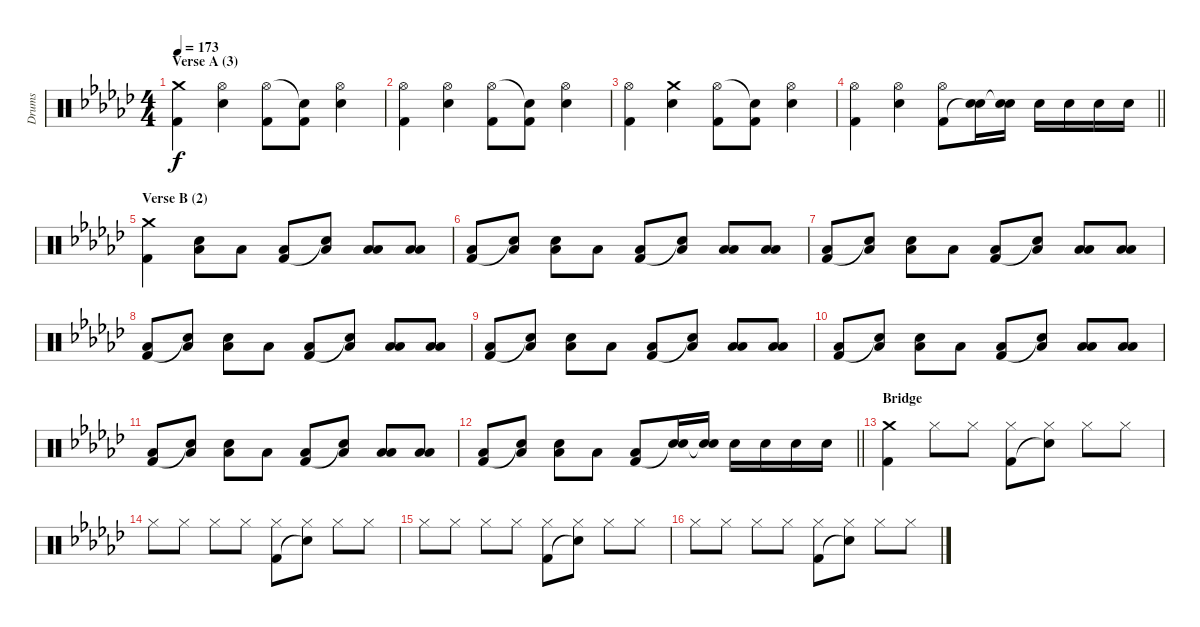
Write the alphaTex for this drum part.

\track ("Drums" "Drums") {instrument percussion}
\staff {score}
\articulation defaults
\ts (4 4)
\section ("" "Verse A (3)")
\tempo 173
\clef neutral
\ks ebminor
("Crash medium (hit)" "Kick (hit) 2").4{dy f} ("Hi-Hat (open)" "Electric Snare (hit)").4 ("Hi-Hat (open)" "Kick (hit) 2").8 ("Snare (hit)"{t} "Kick (hit) 2").8 ("Hi-Hat (open)" "Electric Snare (hit)").4 |
("Hi-Hat (open)" "Kick (hit) 2").4 ("Hi-Hat (open)" "Electric Snare (hit)").4 ("Hi-Hat (open)" "Kick (hit) 2").8 ("Snare (hit)"{t} "Kick (hit) 2").8 ("Hi-Hat (open)" "Electric Snare (hit)").4 |
("Hi-Hat (open)" "Kick (hit) 2").4 ("Crash medium (hit)" "Electric Snare (hit)").4 ("Hi-Hat (open)" "Kick (hit) 2").8 ("Snare (hit)"{t} "Kick (hit) 2").8 ("Hi-Hat (open)" "Electric Snare (hit)").4 |
\barLineRight lightlight
("Hi-Hat (open)" "Kick (hit) 2").4 ("Hi-Hat (open)" "Electric Snare (hit)").4 ("Hi-Hat (open)" "Kick (hit) 2").8 ("Electric Snare (hit)" "Snare (hit)"{t}).16 ("Electric Snare (hit)" "Snare (hit)"{t}).16 "Electric Snare (hit)".16 "Electric Snare (hit)".16 "Electric Snare (hit)".16 "Electric Snare (hit)".16 |
\section ("" "Verse B (2)")
("Crash medium (hit)" "Kick (hit) 2").4 ("Electric Snare (hit)" "Low Floor Tom (hit)").8 "Low Floor Tom (hit)".8 ("Low Floor Tom (hit)" "Kick (hit) 2").8 ("Low Floor Tom (hit)" "Snare (hit)"{t}).8 ("Low Tom (hit)" "Low Floor Tom (hit)").8 ("Low Tom (hit)" "Low Floor Tom (hit)").8 |
("Low Floor Tom (hit)" "Kick (hit) 2").8 ("Low Floor Tom (hit)" "Snare (hit)"{t}).8 ("Electric Snare (hit)" "Low Floor Tom (hit)").8 "Low Floor Tom (hit)".8 ("Low Floor Tom (hit)" "Kick (hit) 2").8 ("Low Floor Tom (hit)" "Snare (hit)"{t}).8 ("Low Tom (hit)" "Low Floor Tom (hit)").8 ("Low Tom (hit)" "Low Floor Tom (hit)").8 |
("Low Floor Tom (hit)" "Kick (hit) 2").8 ("Low Floor Tom (hit)" "Snare (hit)"{t}).8 ("Electric Snare (hit)" "Low Floor Tom (hit)").8 "Low Floor Tom (hit)".8 ("Low Floor Tom (hit)" "Kick (hit) 2").8 ("Low Floor Tom (hit)" "Snare (hit)"{t}).8 ("Low Tom (hit)" "Low Floor Tom (hit)").8 ("Low Tom (hit)" "Low Floor Tom (hit)").8 |
("Low Floor Tom (hit)" "Kick (hit) 2").8 ("Low Floor Tom (hit)" "Snare (hit)"{t}).8 ("Electric Snare (hit)" "Low Floor Tom (hit)").8 "Low Floor Tom (hit)".8 ("Low Floor Tom (hit)" "Kick (hit) 2").8 ("Low Floor Tom (hit)" "Snare (hit)"{t}).8 ("Low Tom (hit)" "Low Floor Tom (hit)").8 ("Low Tom (hit)" "Low Floor Tom (hit)").8 |
("Low Floor Tom (hit)" "Kick (hit) 2").8 ("Low Floor Tom (hit)" "Snare (hit)"{t}).8 ("Electric Snare (hit)" "Low Floor Tom (hit)").8 "Low Floor Tom (hit)".8 ("Low Floor Tom (hit)" "Kick (hit) 2").8 ("Low Floor Tom (hit)" "Snare (hit)"{t}).8 ("Low Tom (hit)" "Low Floor Tom (hit)").8 ("Low Tom (hit)" "Low Floor Tom (hit)").8 |
("Low Floor Tom (hit)" "Kick (hit) 2").8 ("Low Floor Tom (hit)" "Snare (hit)"{t}).8 ("Electric Snare (hit)" "Low Floor Tom (hit)").8 "Low Floor Tom (hit)".8 ("Low Floor Tom (hit)" "Kick (hit) 2").8 ("Low Floor Tom (hit)" "Snare (hit)"{t}).8 ("Low Tom (hit)" "Low Floor Tom (hit)").8 ("Low Tom (hit)" "Low Floor Tom (hit)").8 |
("Low Floor Tom (hit)" "Kick (hit) 2").8 ("Low Floor Tom (hit)" "Snare (hit)"{t}).8 ("Electric Snare (hit)" "Low Floor Tom (hit)").8 "Low Floor Tom (hit)".8 ("Low Floor Tom (hit)" "Kick (hit) 2").8 ("Low Floor Tom (hit)" "Snare (hit)"{t}).8 ("Low Tom (hit)" "Low Floor Tom (hit)").8 ("Low Tom (hit)" "Low Floor Tom (hit)").8 |
\barLineRight lightlight
("Low Floor Tom (hit)" "Kick (hit) 2").8 ("Low Floor Tom (hit)" "Snare (hit)"{t}).8 ("Electric Snare (hit)" "Low Floor Tom (hit)").8 "Low Floor Tom (hit)".8 ("Low Floor Tom (hit)" "Kick (hit) 2").8 ("Electric Snare (hit)" "Snare (hit)"{t}).16 ("Electric Snare (hit)" "Snare (hit)"{t}).16 "Electric Snare (hit)".16 "Electric Snare (hit)".16 "Electric Snare (hit)".16 "Electric Snare (hit)".16 |
\section ("" "Bridge")
("Crash medium (hit)" "Kick (hit) 2").4 "Hi-Hat (closed)".8 "Hi-Hat (closed)".8 ("Hi-Hat (closed)" "Kick (hit) 2").8 ("Hi-Hat (closed)" "Snare (hit)"{t}).8 "Hi-Hat (closed)".8 "Hi-Hat (closed)".8 |
"Hi-Hat (closed)".8 "Hi-Hat (closed)".8 "Hi-Hat (closed)".8 "Hi-Hat (closed)".8 ("Hi-Hat (closed)" "Kick (hit) 2").8 ("Hi-Hat (closed)" "Snare (hit)"{t}).8 "Hi-Hat (closed)".8 "Hi-Hat (closed)".8 |
"Hi-Hat (closed)".8 "Hi-Hat (closed)".8 "Hi-Hat (closed)".8 "Hi-Hat (closed)".8 ("Hi-Hat (closed)" "Kick (hit) 2").8 ("Hi-Hat (closed)" "Snare (hit)"{t}).8 "Hi-Hat (closed)".8 "Hi-Hat (closed)".8 |
"Hi-Hat (closed)".8 "Hi-Hat (closed)".8 "Hi-Hat (closed)".8 "Hi-Hat (closed)".8 ("Hi-Hat (closed)" "Kick (hit) 2").8 ("Hi-Hat (closed)" "Snare (hit)"{t}).8 "Hi-Hat (closed)".8 "Hi-Hat (closed)".8
